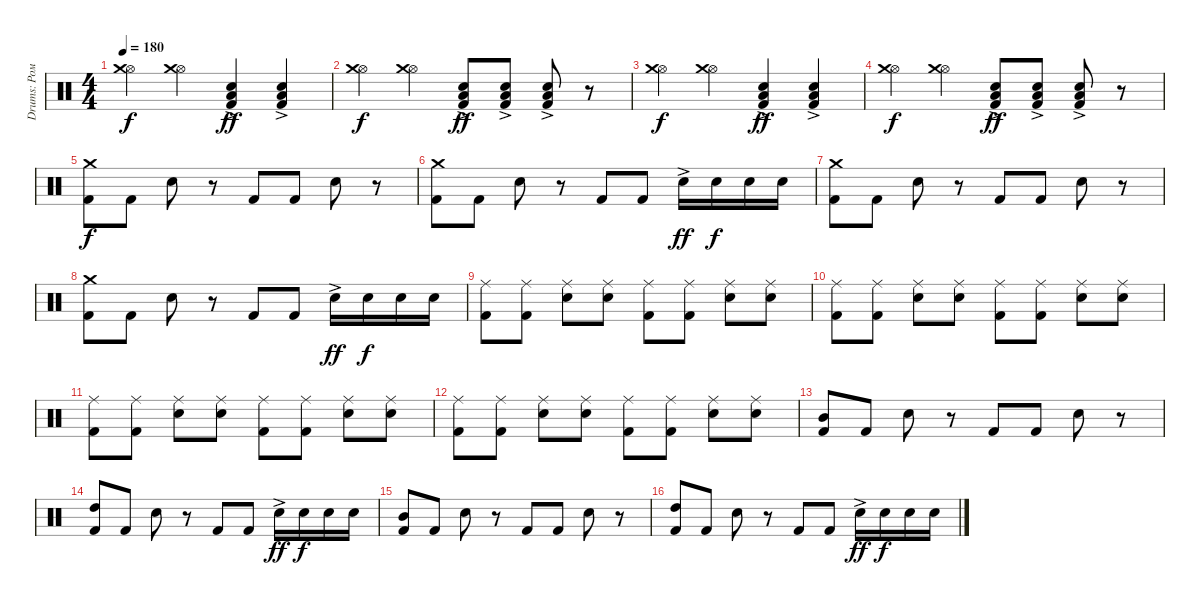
\track ("Drums: Рома" "Drums: Ром") {instrument percussion}
\staff {score}
\articulation defaults
\ts (4 4)
\tempo 180
\clef neutral
\ks c
("Hi-Hat (open)" "Crash medium (hit)").4{dy f} ("Hi-Hat (open)" "Crash medium (hit)").4 ("Snare (hit) 2"{ac} "Low Tom (hit)" "Kick (hit) 2").4{dy ff} ("Snare (hit) 2"{ac} "Low Tom (hit)" "Kick (hit) 2").4 |
("Hi-Hat (open)" "Crash medium (hit)").4{dy f} ("Hi-Hat (open)" "Crash medium (hit)").4 ("Snare (hit) 2"{ac} "Low Tom (hit)" "Kick (hit) 2").8{dy ff} ("Snare (hit) 2"{ac} "Low Tom (hit)" "Kick (hit) 2").8 ("Snare (hit) 2"{ac} "Low Tom (hit)" "Kick (hit) 2").8 r.8 |
("Hi-Hat (open)" "Crash medium (hit)").4{dy f} ("Hi-Hat (open)" "Crash medium (hit)").4 ("Snare (hit) 2"{ac} "Low Tom (hit)" "Kick (hit) 2").4{dy ff} ("Snare (hit) 2"{ac} "Low Tom (hit)" "Kick (hit) 2").4 |
("Hi-Hat (open)" "Crash medium (hit)").4{dy f} ("Hi-Hat (open)" "Crash medium (hit)").4 ("Snare (hit) 2"{ac} "Low Tom (hit)" "Kick (hit) 2").8{dy ff} ("Snare (hit) 2"{ac} "Low Tom (hit)" "Kick (hit) 2").8 ("Snare (hit) 2"{ac} "Low Tom (hit)" "Kick (hit) 2").8 r.8 |
("Crash medium (hit)" "Kick (hit) 2").8{dy f} "Kick (hit) 2".8 "Snare (hit) 2".8 r.8 "Kick (hit) 2".8 "Kick (hit) 2".8 "Snare (hit) 2".8 r.8 |
("Crash medium (hit)" "Kick (hit) 2").8 "Kick (hit) 2".8 "Snare (hit) 2".8 r.8 "Kick (hit) 2".8 "Kick (hit) 2".8 "Snare (hit) 2"{ac}.16{dy ff} "Snare (hit) 2".16{dy f} "Snare (hit) 2".16 "Snare (hit) 2".16 |
("Crash medium (hit)" "Kick (hit) 2").8 "Kick (hit) 2".8 "Snare (hit) 2".8 r.8 "Kick (hit) 2".8 "Kick (hit) 2".8 "Snare (hit) 2".8 r.8 |
("Crash medium (hit)" "Kick (hit) 2").8 "Kick (hit) 2".8 "Snare (hit) 2".8 r.8 "Kick (hit) 2".8 "Kick (hit) 2".8 "Snare (hit) 2"{ac}.16{dy ff} "Snare (hit) 2".16{dy f} "Snare (hit) 2".16 "Snare (hit) 2".16 |
("Ride (middle)" "Kick (hit) 2").8 ("Ride (middle)" "Kick (hit) 2").8 ("Ride (middle)" "Snare (hit) 2").8 ("Ride (middle)" "Snare (hit) 2").8 ("Ride (middle)" "Kick (hit) 2").8 ("Ride (middle)" "Kick (hit) 2").8 ("Ride (middle)" "Snare (hit) 2").8 ("Ride (middle)" "Snare (hit) 2").8 |
("Ride (middle)" "Kick (hit) 2").8 ("Ride (middle)" "Kick (hit) 2").8 ("Ride (middle)" "Snare (hit) 2").8 ("Ride (middle)" "Snare (hit) 2").8 ("Ride (middle)" "Kick (hit) 2").8 ("Ride (middle)" "Kick (hit) 2").8 ("Ride (middle)" "Snare (hit) 2").8 ("Ride (middle)" "Snare (hit) 2").8 |
("Ride (middle)" "Kick (hit) 2").8 ("Ride (middle)" "Kick (hit) 2").8 ("Ride (middle)" "Snare (hit) 2").8 ("Ride (middle)" "Snare (hit) 2").8 ("Ride (middle)" "Kick (hit) 2").8 ("Ride (middle)" "Kick (hit) 2").8 ("Ride (middle)" "Snare (hit) 2").8 ("Ride (middle)" "Snare (hit) 2").8 |
("Ride (middle)" "Kick (hit) 2").8 ("Ride (middle)" "Kick (hit) 2").8 ("Ride (middle)" "Snare (hit) 2").8 ("Ride (middle)" "Snare (hit) 2").8 ("Ride (middle)" "Kick (hit) 2").8 ("Ride (middle)" "Kick (hit) 2").8 ("Ride (middle)" "Snare (hit) 2").8 ("Ride (middle)" "Snare (hit) 2").8 |
("Mid Tom (hit)" "Kick (hit) 2").8 "Kick (hit) 2".8 "Snare (hit) 2".8 r.8 "Kick (hit) 2".8 "Kick (hit) 2".8 "Snare (hit) 2".8 r.8 |
("High Tom (hit)" "Kick (hit) 2").8 "Kick (hit) 2".8 "Snare (hit) 2".8 r.8 "Kick (hit) 2".8 "Kick (hit) 2".8 "Snare (hit) 2"{ac}.16{dy ff} "Snare (hit) 2".16{dy f} "Snare (hit) 2".16 "Snare (hit) 2".16 |
("Mid Tom (hit)" "Kick (hit) 2").8 "Kick (hit) 2".8 "Snare (hit) 2".8 r.8 "Kick (hit) 2".8 "Kick (hit) 2".8 "Snare (hit) 2".8 r.8 |
("High Tom (hit)" "Kick (hit) 2").8 "Kick (hit) 2".8 "Snare (hit) 2".8 r.8 "Kick (hit) 2".8 "Kick (hit) 2".8 "Snare (hit) 2"{ac}.16{dy ff} "Snare (hit) 2".16{dy f} "Snare (hit) 2".16 "Snare (hit) 2".16
